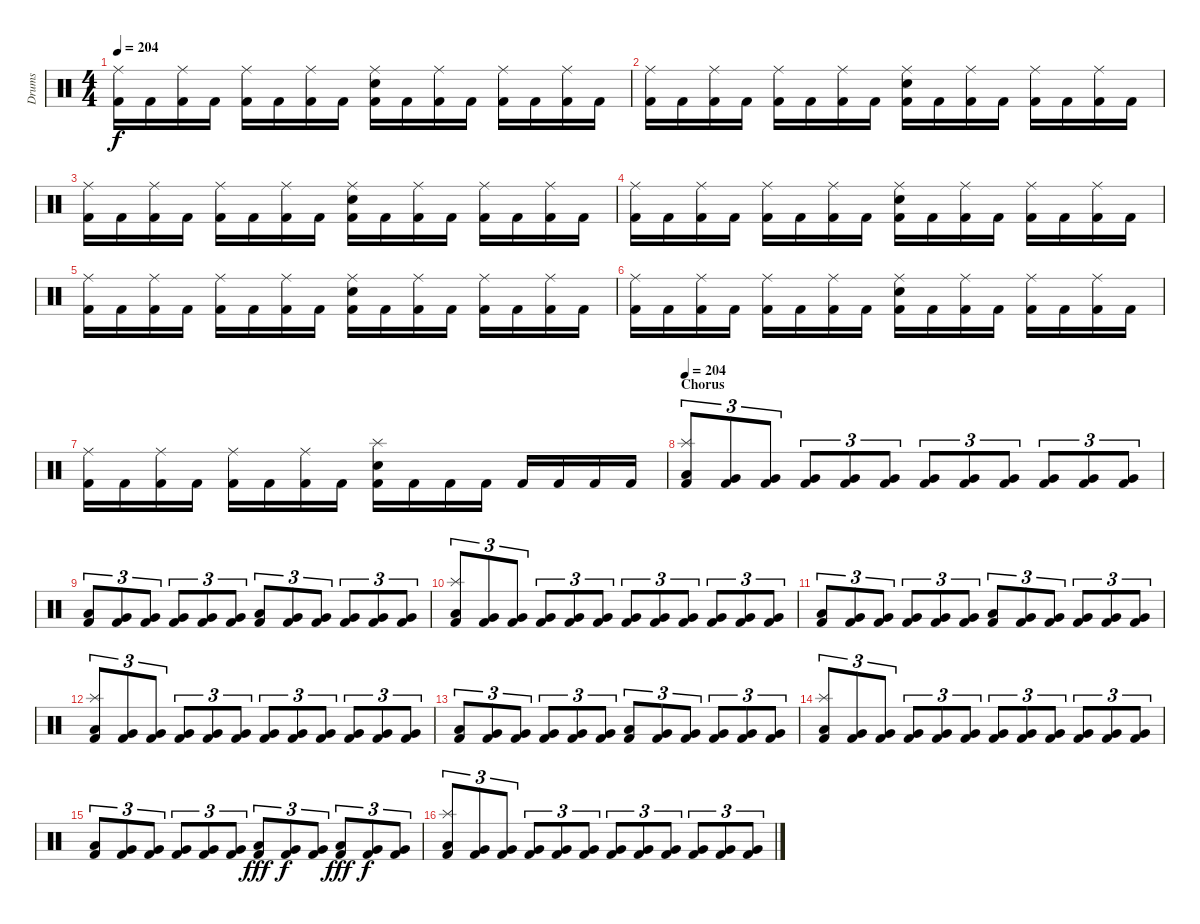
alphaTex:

\track ("Drums" "Drums") {instrument percussion}
\staff {score}
\articulation defaults
\ts (4 4)
\tempo 204
\clef neutral
\ks c
("Ride (middle)" "Kick (hit) 2").16{dy f} "Kick (hit) 2".16 ("Ride (middle)" "Kick (hit) 2").16 "Kick (hit) 2".16 ("Ride (middle)" "Kick (hit) 2").16 "Kick (hit) 2".16 ("Ride (middle)" "Kick (hit) 2").16 "Kick (hit) 2".16 ("Ride (middle)" "Electric Snare (hit)" "Kick (hit) 2").16 "Kick (hit) 2".16 ("Ride (middle)" "Kick (hit) 2").16 "Kick (hit) 2".16 ("Ride (middle)" "Kick (hit) 2").16 "Kick (hit) 2".16 ("Ride (middle)" "Kick (hit) 2").16 "Kick (hit) 2".16 |
("Ride (middle)" "Kick (hit) 2").16 "Kick (hit) 2".16 ("Ride (middle)" "Kick (hit) 2").16 "Kick (hit) 2".16 ("Ride (middle)" "Kick (hit) 2").16 "Kick (hit) 2".16 ("Ride (middle)" "Kick (hit) 2").16 "Kick (hit) 2".16 ("Ride (middle)" "Electric Snare (hit)" "Kick (hit) 2").16 "Kick (hit) 2".16 ("Ride (middle)" "Kick (hit) 2").16 "Kick (hit) 2".16 ("Ride (middle)" "Kick (hit) 2").16 "Kick (hit) 2".16 ("Ride (middle)" "Kick (hit) 2").16 "Kick (hit) 2".16 |
("Ride (middle)" "Kick (hit) 2").16 "Kick (hit) 2".16 ("Ride (middle)" "Kick (hit) 2").16 "Kick (hit) 2".16 ("Ride (middle)" "Kick (hit) 2").16 "Kick (hit) 2".16 ("Ride (middle)" "Kick (hit) 2").16 "Kick (hit) 2".16 ("Ride (middle)" "Electric Snare (hit)" "Kick (hit) 2").16 "Kick (hit) 2".16 ("Ride (middle)" "Kick (hit) 2").16 "Kick (hit) 2".16 ("Ride (middle)" "Kick (hit) 2").16 "Kick (hit) 2".16 ("Ride (middle)" "Kick (hit) 2").16 "Kick (hit) 2".16 |
("Ride (middle)" "Kick (hit) 2").16 "Kick (hit) 2".16 ("Ride (middle)" "Kick (hit) 2").16 "Kick (hit) 2".16 ("Ride (middle)" "Kick (hit) 2").16 "Kick (hit) 2".16 ("Ride (middle)" "Kick (hit) 2").16 "Kick (hit) 2".16 ("Ride (middle)" "Electric Snare (hit)" "Kick (hit) 2").16 "Kick (hit) 2".16 ("Ride (middle)" "Kick (hit) 2").16 "Kick (hit) 2".16 ("Ride (middle)" "Kick (hit) 2").16 "Kick (hit) 2".16 ("Ride (middle)" "Kick (hit) 2").16 "Kick (hit) 2".16 |
("Ride (middle)" "Kick (hit) 2").16 "Kick (hit) 2".16 ("Ride (middle)" "Kick (hit) 2").16 "Kick (hit) 2".16 ("Ride (middle)" "Kick (hit) 2").16 "Kick (hit) 2".16 ("Ride (middle)" "Kick (hit) 2").16 "Kick (hit) 2".16 ("Ride (middle)" "Electric Snare (hit)" "Kick (hit) 2").16 "Kick (hit) 2".16 ("Ride (middle)" "Kick (hit) 2").16 "Kick (hit) 2".16 ("Ride (middle)" "Kick (hit) 2").16 "Kick (hit) 2".16 ("Ride (middle)" "Kick (hit) 2").16 "Kick (hit) 2".16 |
("Ride (middle)" "Kick (hit) 2").16 "Kick (hit) 2".16 ("Ride (middle)" "Kick (hit) 2").16 "Kick (hit) 2".16 ("Ride (middle)" "Kick (hit) 2").16 "Kick (hit) 2".16 ("Ride (middle)" "Kick (hit) 2").16 "Kick (hit) 2".16 ("Ride (middle)" "Electric Snare (hit)" "Kick (hit) 2").16 "Kick (hit) 2".16 ("Ride (middle)" "Kick (hit) 2").16 "Kick (hit) 2".16 ("Ride (middle)" "Kick (hit) 2").16 "Kick (hit) 2".16 ("Ride (middle)" "Kick (hit) 2").16 "Kick (hit) 2".16 |
("Ride (middle)" "Kick (hit) 2").16 "Kick (hit) 2".16 ("Ride (middle)" "Kick (hit) 2").16 "Kick (hit) 2".16 ("Ride (middle)" "Kick (hit) 2").16 "Kick (hit) 2".16 ("Ride (middle)" "Kick (hit) 2").16 "Kick (hit) 2".16 ("Splash (hit)" "Electric Snare (hit)" "Kick (hit) 2").16 "Kick (hit) 2".16 "Kick (hit) 2".16 "Kick (hit) 2".16 "Kick (hit) 2".16 "Kick (hit) 2".16 "Kick (hit) 2".16 "Kick (hit) 2".16 |
\section ("" "Chorus")
\tempo 204
("Splash (hit)" "Low Tom (hit)" "Kick (hit) 2").8{tu (3 2)} ("Very Low Tom (hit)" "Kick (hit) 2").8{tu (3 2)} ("Very Low Tom (hit)" "Kick (hit) 2").8{tu (3 2)} ("Very Low Tom (hit)" "Kick (hit) 2").8{tu (3 2)} ("Very Low Tom (hit)" "Kick (hit) 2").8{tu (3 2)} ("Very Low Tom (hit)" "Kick (hit) 2").8{tu (3 2)} ("Very Low Tom (hit)" "Kick (hit) 2").8{tu (3 2)} ("Very Low Tom (hit)" "Kick (hit) 2").8{tu (3 2)} ("Very Low Tom (hit)" "Kick (hit) 2").8{tu (3 2)} ("Very Low Tom (hit)" "Kick (hit) 2").8{tu (3 2)} ("Very Low Tom (hit)" "Kick (hit) 2").8{tu (3 2)} ("Very Low Tom (hit)" "Kick (hit) 2").8{tu (3 2)} |
("Low Tom (hit)" "Kick (hit) 2").8{tu (3 2)} ("Very Low Tom (hit)" "Kick (hit) 2").8{tu (3 2)} ("Very Low Tom (hit)" "Kick (hit) 2").8{tu (3 2)} ("Very Low Tom (hit)" "Kick (hit) 2").8{tu (3 2)} ("Very Low Tom (hit)" "Kick (hit) 2").8{tu (3 2)} ("Very Low Tom (hit)" "Kick (hit) 2").8{tu (3 2)} ("Low Tom (hit)" "Kick (hit) 2").8{tu (3 2)} ("Very Low Tom (hit)" "Kick (hit) 2").8{tu (3 2)} ("Very Low Tom (hit)" "Kick (hit) 2").8{tu (3 2)} ("Very Low Tom (hit)" "Kick (hit) 2").8{tu (3 2)} ("Very Low Tom (hit)" "Kick (hit) 2").8{tu (3 2)} ("Very Low Tom (hit)" "Kick (hit) 2").8{tu (3 2)} |
("Splash (hit)" "Low Tom (hit)" "Kick (hit) 2").8{tu (3 2)} ("Very Low Tom (hit)" "Kick (hit) 2").8{tu (3 2)} ("Very Low Tom (hit)" "Kick (hit) 2").8{tu (3 2)} ("Very Low Tom (hit)" "Kick (hit) 2").8{tu (3 2)} ("Very Low Tom (hit)" "Kick (hit) 2").8{tu (3 2)} ("Very Low Tom (hit)" "Kick (hit) 2").8{tu (3 2)} ("Very Low Tom (hit)" "Kick (hit) 2").8{tu (3 2)} ("Very Low Tom (hit)" "Kick (hit) 2").8{tu (3 2)} ("Very Low Tom (hit)" "Kick (hit) 2").8{tu (3 2)} ("Very Low Tom (hit)" "Kick (hit) 2").8{tu (3 2)} ("Very Low Tom (hit)" "Kick (hit) 2").8{tu (3 2)} ("Very Low Tom (hit)" "Kick (hit) 2").8{tu (3 2)} |
("Low Tom (hit)" "Kick (hit) 2").8{tu (3 2)} ("Very Low Tom (hit)" "Kick (hit) 2").8{tu (3 2)} ("Very Low Tom (hit)" "Kick (hit) 2").8{tu (3 2)} ("Very Low Tom (hit)" "Kick (hit) 2").8{tu (3 2)} ("Very Low Tom (hit)" "Kick (hit) 2").8{tu (3 2)} ("Very Low Tom (hit)" "Kick (hit) 2").8{tu (3 2)} ("Low Tom (hit)" "Kick (hit) 2").8{tu (3 2)} ("Very Low Tom (hit)" "Kick (hit) 2").8{tu (3 2)} ("Very Low Tom (hit)" "Kick (hit) 2").8{tu (3 2)} ("Very Low Tom (hit)" "Kick (hit) 2").8{tu (3 2)} ("Very Low Tom (hit)" "Kick (hit) 2").8{tu (3 2)} ("Very Low Tom (hit)" "Kick (hit) 2").8{tu (3 2)} |
("Splash (hit)" "Low Tom (hit)" "Kick (hit) 2").8{tu (3 2)} ("Very Low Tom (hit)" "Kick (hit) 2").8{tu (3 2)} ("Very Low Tom (hit)" "Kick (hit) 2").8{tu (3 2)} ("Very Low Tom (hit)" "Kick (hit) 2").8{tu (3 2)} ("Very Low Tom (hit)" "Kick (hit) 2").8{tu (3 2)} ("Very Low Tom (hit)" "Kick (hit) 2").8{tu (3 2)} ("Very Low Tom (hit)" "Kick (hit) 2").8{tu (3 2)} ("Very Low Tom (hit)" "Kick (hit) 2").8{tu (3 2)} ("Very Low Tom (hit)" "Kick (hit) 2").8{tu (3 2)} ("Very Low Tom (hit)" "Kick (hit) 2").8{tu (3 2)} ("Very Low Tom (hit)" "Kick (hit) 2").8{tu (3 2)} ("Very Low Tom (hit)" "Kick (hit) 2").8{tu (3 2)} |
("Low Tom (hit)" "Kick (hit) 2").8{tu (3 2)} ("Very Low Tom (hit)" "Kick (hit) 2").8{tu (3 2)} ("Very Low Tom (hit)" "Kick (hit) 2").8{tu (3 2)} ("Very Low Tom (hit)" "Kick (hit) 2").8{tu (3 2)} ("Very Low Tom (hit)" "Kick (hit) 2").8{tu (3 2)} ("Very Low Tom (hit)" "Kick (hit) 2").8{tu (3 2)} ("Low Tom (hit)" "Kick (hit) 2").8{tu (3 2)} ("Very Low Tom (hit)" "Kick (hit) 2").8{tu (3 2)} ("Very Low Tom (hit)" "Kick (hit) 2").8{tu (3 2)} ("Very Low Tom (hit)" "Kick (hit) 2").8{tu (3 2)} ("Very Low Tom (hit)" "Kick (hit) 2").8{tu (3 2)} ("Very Low Tom (hit)" "Kick (hit) 2").8{tu (3 2)} |
("Splash (hit)" "Low Tom (hit)" "Kick (hit) 2").8{tu (3 2)} ("Very Low Tom (hit)" "Kick (hit) 2").8{tu (3 2)} ("Very Low Tom (hit)" "Kick (hit) 2").8{tu (3 2)} ("Very Low Tom (hit)" "Kick (hit) 2").8{tu (3 2)} ("Very Low Tom (hit)" "Kick (hit) 2").8{tu (3 2)} ("Very Low Tom (hit)" "Kick (hit) 2").8{tu (3 2)} ("Very Low Tom (hit)" "Kick (hit) 2").8{tu (3 2)} ("Very Low Tom (hit)" "Kick (hit) 2").8{tu (3 2)} ("Very Low Tom (hit)" "Kick (hit) 2").8{tu (3 2)} ("Very Low Tom (hit)" "Kick (hit) 2").8{tu (3 2)} ("Very Low Tom (hit)" "Kick (hit) 2").8{tu (3 2)} ("Very Low Tom (hit)" "Kick (hit) 2").8{tu (3 2)} |
("Low Tom (hit)" "Kick (hit) 2").8{tu (3 2)} ("Very Low Tom (hit)" "Kick (hit) 2").8{tu (3 2)} ("Very Low Tom (hit)" "Kick (hit) 2").8{tu (3 2)} ("Very Low Tom (hit)" "Kick (hit) 2").8{tu (3 2)} ("Very Low Tom (hit)" "Kick (hit) 2").8{tu (3 2)} ("Very Low Tom (hit)" "Kick (hit) 2").8{tu (3 2)} ("Low Tom (hit)" "Kick (hit) 2").8{tu (3 2) dy fff} ("Very Low Tom (hit)" "Kick (hit) 2").8{tu (3 2) dy f} ("Very Low Tom (hit)" "Kick (hit) 2").8{tu (3 2)} ("Low Tom (hit)" "Kick (hit) 2").8{tu (3 2) dy fff} ("Very Low Tom (hit)" "Kick (hit) 2").8{tu (3 2) dy f} ("Very Low Tom (hit)" "Kick (hit) 2").8{tu (3 2)} |
("Splash (hit)" "Low Tom (hit)" "Kick (hit) 2").8{tu (3 2)} ("Very Low Tom (hit)" "Kick (hit) 2").8{tu (3 2)} ("Very Low Tom (hit)" "Kick (hit) 2").8{tu (3 2)} ("Very Low Tom (hit)" "Kick (hit) 2").8{tu (3 2)} ("Very Low Tom (hit)" "Kick (hit) 2").8{tu (3 2)} ("Very Low Tom (hit)" "Kick (hit) 2").8{tu (3 2)} ("Very Low Tom (hit)" "Kick (hit) 2").8{tu (3 2)} ("Very Low Tom (hit)" "Kick (hit) 2").8{tu (3 2)} ("Very Low Tom (hit)" "Kick (hit) 2").8{tu (3 2)} ("Very Low Tom (hit)" "Kick (hit) 2").8{tu (3 2)} ("Very Low Tom (hit)" "Kick (hit) 2").8{tu (3 2)} ("Very Low Tom (hit)" "Kick (hit) 2").8{tu (3 2)}
